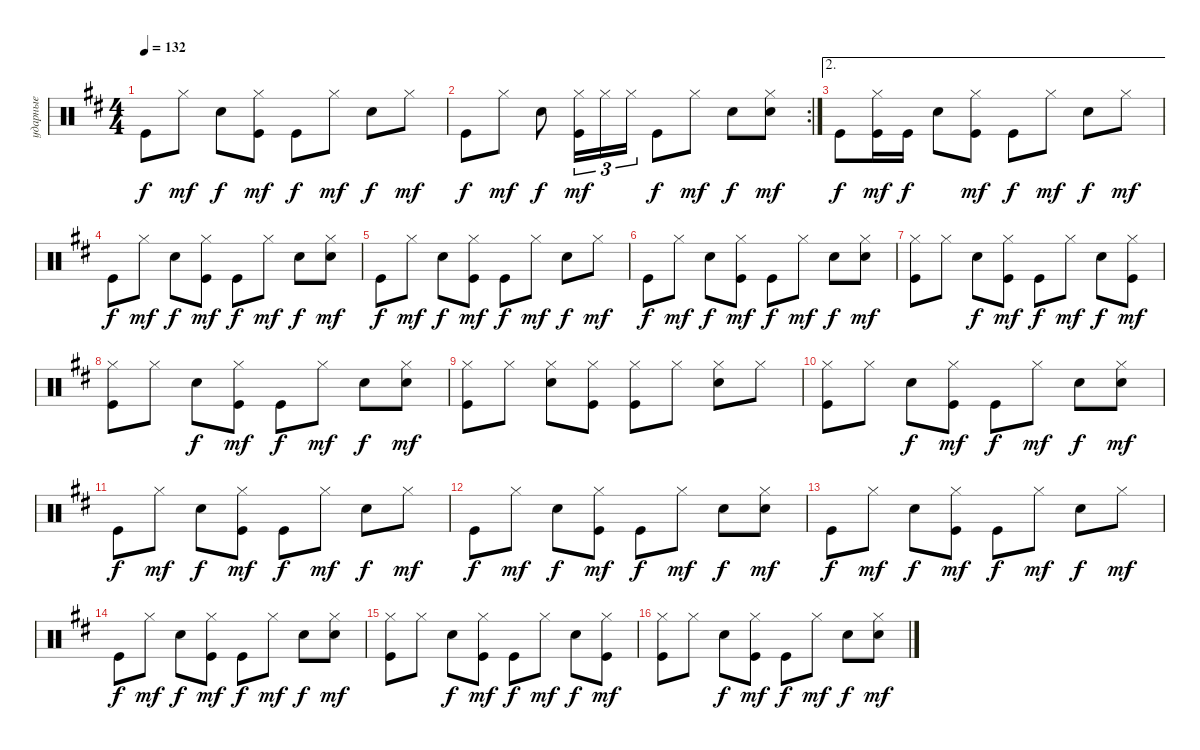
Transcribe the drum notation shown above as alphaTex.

\track ("ударные" "ударные") {instrument percussion}
\staff {score}
\articulation defaults
\ts (4 4)
\tempo 132
\clef neutral
\ks d "Kick (hit)".8{dy f} "Hi-Hat (closed)".8{dy mf} "Snare (hit) 2".8{dy f}
("Kick (hit)" "Hi-Hat (closed)").8{dy mf} "Kick (hit)".8{dy f} "Hi-Hat (closed)".8{dy mf} "Snare (hit) 2".8{dy f} "Hi-Hat (closed)".8{dy mf} |
\rc 2 "Kick (hit)".8{dy f} "Hi-Hat (closed)".8{dy mf} "Snare (hit) 2".8{dy f}
("Kick (hit)" "Hi-Hat (closed)").16{tu (3 2) dy mf} "Hi-Hat (closed)".16{tu (3 2)} "Hi-Hat (closed)".16{tu (3 2)} "Kick (hit)".8{dy f} "Hi-Hat (closed)".8{dy mf} "Snare (hit) 2".8{dy f} ("Hi-Hat (closed)" "Snare (hit) 2").8{dy mf} |
\ae 2 "Kick (hit)".8{dy f}
("Hi-Hat (closed)" "Kick (hit)").16{dy mf} "Kick (hit)".16{dy f} "Snare (hit) 2".8 ("Kick (hit)" "Hi-Hat (closed)").8{dy mf} "Kick (hit)".8{dy f} "Hi-Hat (closed)".8{dy mf} "Snare (hit) 2".8{dy f} "Hi-Hat (closed)".8{dy mf} |
"Kick (hit)".8{dy f} "Hi-Hat (closed)".8{dy mf} "Snare (hit) 2".8{dy f} ("Kick (hit)" "Hi-Hat (closed)").8{dy mf} "Kick (hit)".8{dy f} "Hi-Hat (closed)".8{dy mf} "Snare (hit) 2".8{dy f} ("Hi-Hat (closed)" "Snare (hit) 2").8{dy mf} |
"Kick (hit)".8{dy f} "Hi-Hat (closed)".8{dy mf} "Snare (hit) 2".8{dy f} ("Kick (hit)" "Hi-Hat (closed)").8{dy mf} "Kick (hit)".8{dy f} "Hi-Hat (closed)".8{dy mf} "Snare (hit) 2".8{dy f} "Hi-Hat (closed)".8{dy mf} |
"Kick (hit)".8{dy f} "Hi-Hat (closed)".8{dy mf} "Snare (hit) 2".8{dy f} ("Kick (hit)" "Hi-Hat (closed)").8{dy mf} "Kick (hit)".8{dy f} "Hi-Hat (closed)".8{dy mf} "Snare (hit) 2".8{dy f} ("Hi-Hat (closed)" "Snare (hit) 2").8{dy mf} |
("Kick (hit)" "Hi-Hat (closed)").8 "Hi-Hat (closed)".8 "Snare (hit) 2".8{dy f} ("Kick (hit)" "Hi-Hat (closed)").8{dy mf} "Kick (hit)".8{dy f} "Hi-Hat (closed)".8{dy mf} "Snare (hit) 2".8{dy f} ("Kick (hit)" "Hi-Hat (closed)").8{dy mf} |
("Kick (hit)" "Hi-Hat (closed)").8 "Hi-Hat (closed)".8 "Snare (hit) 2".8{dy f} ("Kick (hit)" "Hi-Hat (closed)").8{dy mf} "Kick (hit)".8{dy f} "Hi-Hat (closed)".8{dy mf} "Snare (hit) 2".8{dy f} ("Hi-Hat (closed)" "Snare (hit) 2").8{dy mf} |
("Kick (hit)" "Hi-Hat (closed)").8 "Hi-Hat (closed)".8 ("Snare (hit) 2" "Hi-Hat (closed)").8 ("Kick (hit)" "Hi-Hat (closed)").8 ("Kick (hit)" "Hi-Hat (closed)").8 "Hi-Hat (closed)".8 ("Snare (hit) 2" "Hi-Hat (closed)").8 "Hi-Hat (closed)".8 |
("Kick (hit)" "Hi-Hat (closed)").8 "Hi-Hat (closed)".8 "Snare (hit) 2".8{dy f} ("Kick (hit)" "Hi-Hat (closed)").8{dy mf} "Kick (hit)".8{dy f} "Hi-Hat (closed)".8{dy mf} "Snare (hit) 2".8{dy f} ("Hi-Hat (closed)" "Snare (hit) 2").8{dy mf} |
"Kick (hit)".8{dy f} "Hi-Hat (closed)".8{dy mf} "Snare (hit) 2".8{dy f} ("Kick (hit)" "Hi-Hat (closed)").8{dy mf} "Kick (hit)".8{dy f} "Hi-Hat (closed)".8{dy mf} "Snare (hit) 2".8{dy f} "Hi-Hat (closed)".8{dy mf} |
"Kick (hit)".8{dy f} "Hi-Hat (closed)".8{dy mf} "Snare (hit) 2".8{dy f} ("Kick (hit)" "Hi-Hat (closed)").8{dy mf} "Kick (hit)".8{dy f} "Hi-Hat (closed)".8{dy mf} "Snare (hit) 2".8{dy f} ("Hi-Hat (closed)" "Snare (hit) 2").8{dy mf} |
"Kick (hit)".8{dy f} "Hi-Hat (closed)".8{dy mf} "Snare (hit) 2".8{dy f} ("Kick (hit)" "Hi-Hat (closed)").8{dy mf} "Kick (hit)".8{dy f} "Hi-Hat (closed)".8{dy mf} "Snare (hit) 2".8{dy f} "Hi-Hat (closed)".8{dy mf} |
"Kick (hit)".8{dy f} "Hi-Hat (closed)".8{dy mf} "Snare (hit) 2".8{dy f} ("Kick (hit)" "Hi-Hat (closed)").8{dy mf} "Kick (hit)".8{dy f} "Hi-Hat (closed)".8{dy mf} "Snare (hit) 2".8{dy f} ("Hi-Hat (closed)" "Snare (hit) 2").8{dy mf} |
("Kick (hit)" "Hi-Hat (closed)").8 "Hi-Hat (closed)".8 "Snare (hit) 2".8{dy f} ("Kick (hit)" "Hi-Hat (closed)").8{dy mf} "Kick (hit)".8{dy f} "Hi-Hat (closed)".8{dy mf} "Snare (hit) 2".8{dy f} ("Kick (hit)" "Hi-Hat (closed)").8{dy mf} |
("Kick (hit)" "Hi-Hat (closed)").8 "Hi-Hat (closed)".8 "Snare (hit) 2".8{dy f} ("Kick (hit)" "Hi-Hat (closed)").8{dy mf} "Kick (hit)".8{dy f} "Hi-Hat (closed)".8{dy mf} "Snare (hit) 2".8{dy f} ("Hi-Hat (closed)" "Snare (hit) 2").8{dy mf}
